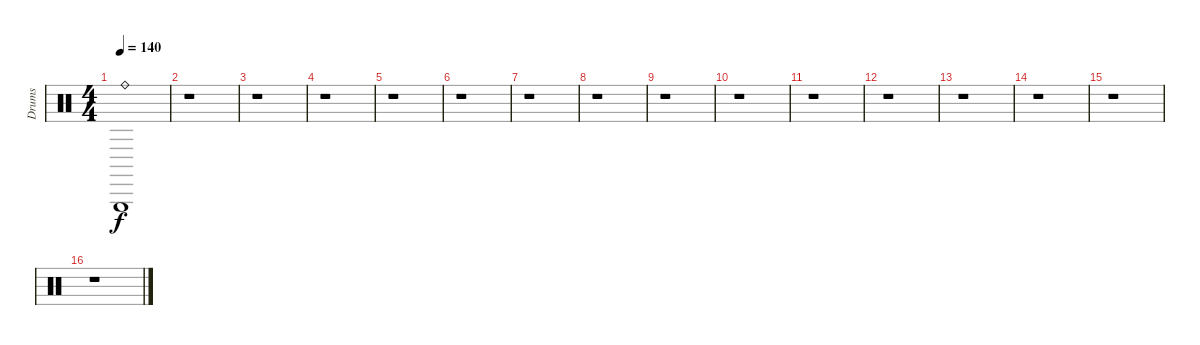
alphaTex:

\track ("Drums" "Drums") {instrument percussion}
\staff {score}
\articulation defaults
\ts (4 4)
\tempo 140
\clef neutral
\ks c
("Ride (bell)" "Triangle (hit)").1{dy f} |
r.1 |
r.1 |
r.1 |
r.1 |
r.1 |
r.1 |
r.1 |
r.1 |
r.1 |
r.1 |
r.1 |
r.1 |
r.1 |
r.1 |
r.1
